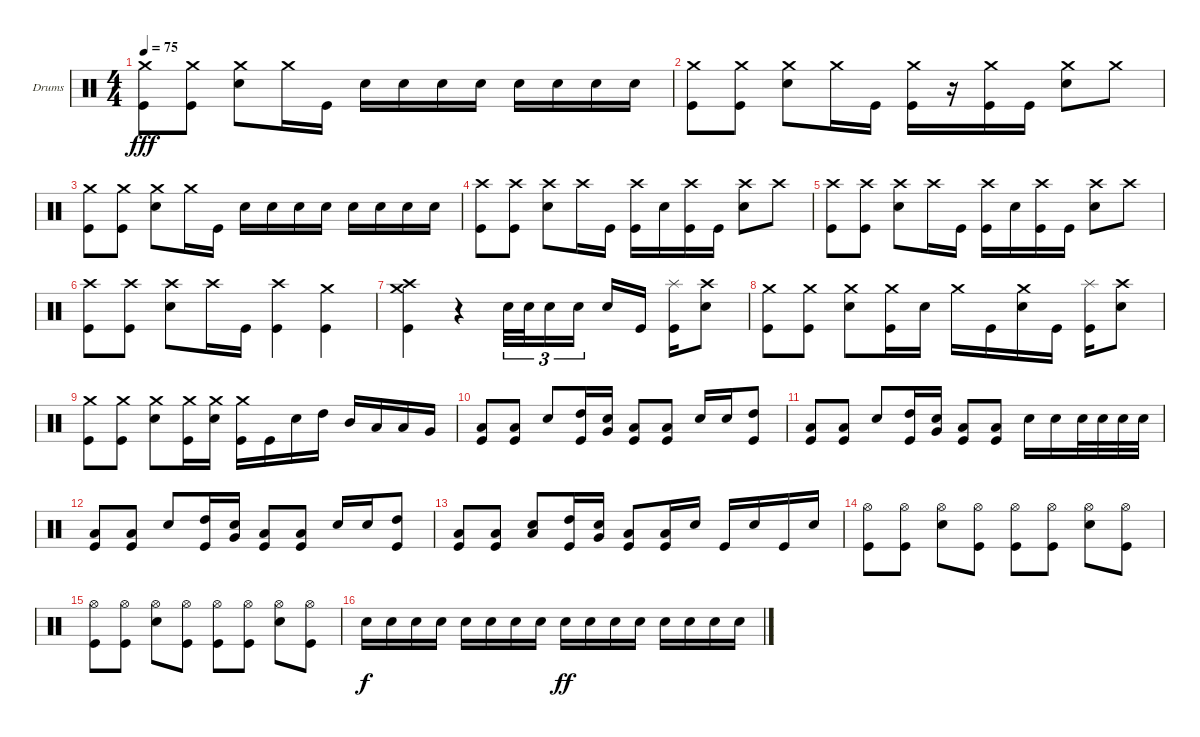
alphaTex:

\bracketExtendMode groupsimilarinstruments
\firstSystemTrackNameOrientation horizontal
\otherSystemsTrackNameOrientation horizontal
\track ("Drumkit" "Drums") {instrument percussion}
\staff {score}
\articulation defaults
\ts (4 4)
\tempo 75
\clef neutral
\ks c
("Kick (hit)" "Crash medium (hit)").8{dy fff} ("Kick (hit)" "Crash medium (hit)").8 ("Snare (hit) 2" "Crash medium (hit)").8 "Crash medium (hit)".16 "Kick (hit)".16 "Snare (hit) 2".16 "Snare (hit) 2".16 "Snare (hit) 2".16 "Snare (hit) 2".16 "Snare (hit) 2".16 "Snare (hit) 2".16 "Snare (hit) 2".16 "Snare (hit) 2".16 |
("Kick (hit)" "Crash medium (hit)").8 ("Kick (hit)" "Crash medium (hit)").8 ("Snare (hit) 2" "Crash medium (hit)").8 "Crash medium (hit)".16 "Kick (hit)".16 ("Kick (hit)" "Crash medium (hit)").16 r.16 ("Kick (hit)" "Crash medium (hit)").16 "Kick (hit)".16 ("Snare (hit) 2" "Crash medium (hit)").8 "Crash medium (hit)".8 |
("Kick (hit)" "Crash medium (hit)").8 ("Kick (hit)" "Crash medium (hit)").8 ("Snare (hit) 2" "Crash medium (hit)").8 "Crash medium (hit)".16 "Kick (hit)".16 "Snare (hit) 2".16 "Snare (hit) 2".16 "Snare (hit) 2".16 "Snare (hit) 2".16 "Snare (hit) 2".16 "Snare (hit) 2".16 "Snare (hit) 2".16 "Snare (hit) 2".16 |
("Kick (hit)" "Crash high (hit)").8 ("Kick (hit)" "Crash high (hit)").8 ("Snare (hit) 2" "Crash high (hit)").8 "Crash high (hit)".16 "Kick (hit)".16 ("Kick (hit)" "Crash high (hit)").16 "Snare (hit) 2".16 ("Kick (hit)" "Crash high (hit)").16 "Kick (hit)".16 ("Snare (hit) 2" "Crash high (hit)").8 "Crash high (hit)".8 |
("Kick (hit)" "Crash high (hit)").8 ("Kick (hit)" "Crash high (hit)").8 ("Snare (hit) 2" "Crash high (hit)").8 "Crash high (hit)".16 "Kick (hit)".16 ("Kick (hit)" "Crash high (hit)").16 "Snare (hit) 2".16 ("Kick (hit)" "Crash high (hit)").16 "Kick (hit)".16 ("Snare (hit) 2" "Crash high (hit)").8 "Crash high (hit)".8 |
("Kick (hit)" "Crash high (hit)").8 ("Kick (hit)" "Crash high (hit)").8 ("Snare (hit) 2" "Crash high (hit)").8 "Crash high (hit)".16 "Kick (hit)".16 ("Kick (hit)" "Crash high (hit)").4 ("Crash medium (hit)" "Kick (hit)").4 |
("Kick (hit)" "Crash medium (hit)" "Crash high (hit)").4 r.4 "Snare (hit) 2".32{tu (3 2)} "Snare (hit) 2".32{tu (3 2)} "Snare (hit) 2".16{tu (3 2)} "Snare (hit) 2".16{tu (3 2)} "Snare (hit) 2".16 "Kick (hit)".16 ("Kick (hit)" "Splash (hit)").16 ("Snare (hit) 2" "Crash high (hit)").8 |
("Kick (hit)" "Crash medium (hit)").8 ("Kick (hit)" "Crash medium (hit)").8 ("Snare (hit) 2" "Crash medium (hit)").8 ("Kick (hit)" "Crash medium (hit)").16 "Snare (hit) 2".16 "Crash medium (hit)".16 "Kick (hit)".16 ("Snare (hit) 2" "Crash medium (hit)").16 "Kick (hit)".16 ("Kick (hit)" "Splash (hit)").16 ("Snare (hit) 2" "Crash high (hit)").8 |
("Kick (hit)" "Crash medium (hit)").8 ("Kick (hit)" "Crash medium (hit)").8 ("Snare (hit) 2" "Crash medium (hit)").8 ("Kick (hit)" "Crash medium (hit)").16 ("Snare (hit) 2" "Crash medium (hit)").16 ("Crash medium (hit)" "Kick (hit)").16 "Kick (hit)".16 "Snare (hit) 2".16 "High Tom (hit)".16 "Mid Tom (hit)".16 "Low Tom (hit)".16 "Low Tom (hit)".16 "Very Low Tom (hit)".16 |
("Kick (hit)" "Low Tom (hit)").8 ("Kick (hit)" "Low Tom (hit)").8 "Snare (hit) 2".8 ("Kick (hit)" "High Tom (hit)").16 ("Snare (hit) 2" "Very Low Tom (hit)").16 ("Kick (hit)" "Low Tom (hit)").8 ("Kick (hit)" "Low Tom (hit)").8 "Snare (hit) 2".16 "Snare (hit) 2".16 ("Kick (hit)" "High Tom (hit)").8 |
("Kick (hit)" "Low Tom (hit)").8 ("Kick (hit)" "Low Tom (hit)").8 "Snare (hit) 2".8 ("Kick (hit)" "High Tom (hit)").16 ("Snare (hit) 2" "Very Low Tom (hit)").16 ("Kick (hit)" "Low Tom (hit)").8 ("Kick (hit)" "Low Tom (hit)").8 "Snare (hit) 2".16 "Snare (hit) 2".16 "Snare (hit) 2".32 "Snare (hit) 2".32 "Snare (hit) 2".32 "Snare (hit) 2".32 |
("Kick (hit)" "Low Tom (hit)").8 ("Kick (hit)" "Low Tom (hit)").8 "Snare (hit) 2".8 ("Kick (hit)" "High Tom (hit)").16 ("Snare (hit) 2" "Very Low Tom (hit)").16 ("Kick (hit)" "Low Tom (hit)").8 ("Kick (hit)" "Low Tom (hit)").8 "Snare (hit) 2".16 "Snare (hit) 2".16 ("Kick (hit)" "High Tom (hit)").8 |
("Kick (hit)" "Low Tom (hit)").8 ("Kick (hit)" "Low Tom (hit)").8 ("Snare (hit) 2" "Low Tom (hit)").8 ("Kick (hit)" "High Tom (hit)").16 ("Snare (hit) 2" "Very Low Tom (hit)").16 ("Kick (hit)" "Low Tom (hit)").8 ("Kick (hit)" "Low Tom (hit)").16 "Snare (hit) 2".16 "Kick (hit)".16 "Snare (hit) 2".16 "Kick (hit)".16 "Snare (hit) 2".16 |
("Kick (hit)" "Hi-Hat (open)").8 ("Kick (hit)" "Hi-Hat (open)").8 ("Snare (hit) 2" "Hi-Hat (open)").8 ("Kick (hit)" "Hi-Hat (open)").8 ("Kick (hit)" "Hi-Hat (open)").8 ("Kick (hit)" "Hi-Hat (open)").8 ("Snare (hit) 2" "Hi-Hat (open)").8 ("Kick (hit)" "Hi-Hat (open)").8 |
("Kick (hit)" "Hi-Hat (open)").8 ("Kick (hit)" "Hi-Hat (open)").8 ("Snare (hit) 2" "Hi-Hat (open)").8 ("Kick (hit)" "Hi-Hat (open)").8 ("Kick (hit)" "Hi-Hat (open)").8 ("Kick (hit)" "Hi-Hat (open)").8 ("Snare (hit) 2" "Hi-Hat (open)").8 ("Kick (hit)" "Hi-Hat (open)").8 |
"Snare (hit) 2".16{dy f} "Snare (hit) 2".16 "Snare (hit) 2".16 "Snare (hit) 2".16 "Snare (hit) 2".16 "Snare (hit) 2".16 "Snare (hit) 2".16 "Snare (hit) 2".16 "Snare (hit) 2".16{dy ff} "Snare (hit) 2".16 "Snare (hit) 2".16 "Snare (hit) 2".16 "Snare (hit) 2".16 "Snare (hit) 2".16 "Snare (hit) 2".16 "Snare (hit) 2".16
